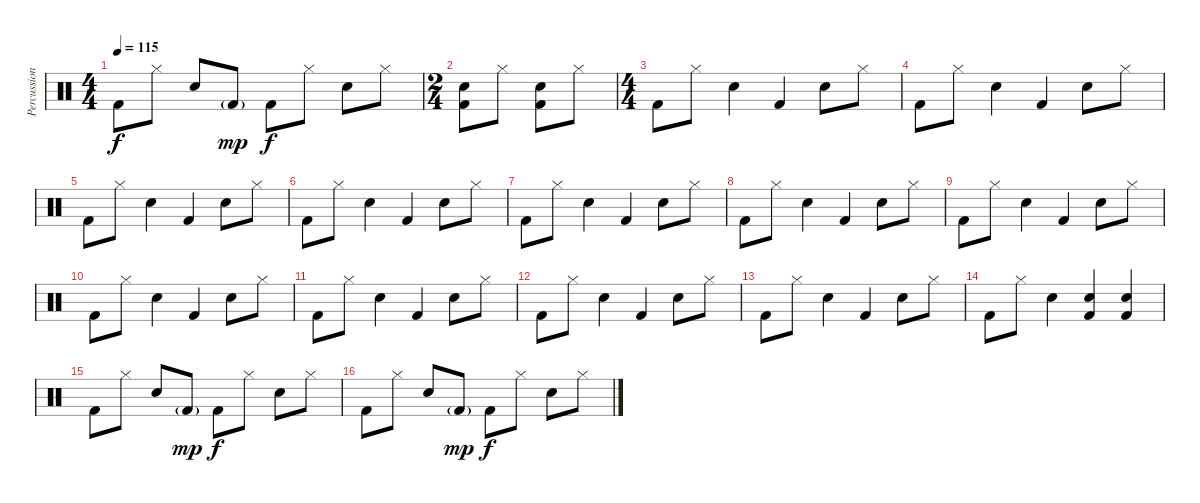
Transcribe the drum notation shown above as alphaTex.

\track ("Percussion" "Percussion") {instrument percussion}
\staff {score}
\articulation defaults
\ts (4 4)
\tempo 115
\clef neutral
\ks c "Kick (hit) 2".8{dy f} "Hi-Hat (closed)".8 "Snare (hit) 2".8 "Kick (hit) 2"{g}.8{dy mp} "Kick (hit) 2".8{dy f} "Hi-Hat (closed)".8 "Snare (hit) 2".8 "Hi-Hat (closed)".8
|
\ts (2 4)
("Snare (hit) 2" "Kick (hit) 2").8 "Hi-Hat (closed)".8 ("Snare (hit) 2" "Kick (hit) 2").8 "Hi-Hat (closed)".8 |
\ts (4 4)
"Kick (hit) 2".8 "Hi-Hat (closed)".8 "Snare (hit) 2".4 "Kick (hit) 2".4 "Snare (hit) 2".8 "Hi-Hat (closed)".8 |
"Kick (hit) 2".8 "Hi-Hat (closed)".8 "Snare (hit) 2".4 "Kick (hit) 2".4 "Snare (hit) 2".8 "Hi-Hat (closed)".8 |
"Kick (hit) 2".8 "Hi-Hat (closed)".8 "Snare (hit) 2".4 "Kick (hit) 2".4 "Snare (hit) 2".8 "Hi-Hat (closed)".8 |
"Kick (hit) 2".8 "Hi-Hat (closed)".8 "Snare (hit) 2".4 "Kick (hit) 2".4 "Snare (hit) 2".8 "Hi-Hat (closed)".8 |
"Kick (hit) 2".8 "Hi-Hat (closed)".8 "Snare (hit) 2".4 "Kick (hit) 2".4 "Snare (hit) 2".8 "Hi-Hat (closed)".8 |
"Kick (hit) 2".8 "Hi-Hat (closed)".8 "Snare (hit) 2".4 "Kick (hit) 2".4 "Snare (hit) 2".8 "Hi-Hat (closed)".8 |
"Kick (hit) 2".8 "Hi-Hat (closed)".8 "Snare (hit) 2".4 "Kick (hit) 2".4 "Snare (hit) 2".8 "Hi-Hat (closed)".8 |
"Kick (hit) 2".8 "Hi-Hat (closed)".8 "Snare (hit) 2".4 "Kick (hit) 2".4 "Snare (hit) 2".8 "Hi-Hat (closed)".8 |
"Kick (hit) 2".8 "Hi-Hat (closed)".8 "Snare (hit) 2".4 "Kick (hit) 2".4 "Snare (hit) 2".8 "Hi-Hat (closed)".8 |
"Kick (hit) 2".8 "Hi-Hat (closed)".8 "Snare (hit) 2".4 "Kick (hit) 2".4 "Snare (hit) 2".8 "Hi-Hat (closed)".8 |
"Kick (hit) 2".8 "Hi-Hat (closed)".8 "Snare (hit) 2".4 "Kick (hit) 2".4 "Snare (hit) 2".8 "Hi-Hat (closed)".8 |
"Kick (hit) 2".8 "Hi-Hat (closed)".8 "Snare (hit) 2".4 ("Snare (hit) 2" "Kick (hit) 2").4 ("Snare (hit) 2" "Kick (hit) 2").4 |
"Kick (hit) 2".8 "Hi-Hat (closed)".8 "Snare (hit) 2".8 "Kick (hit) 2"{g}.8{dy mp} "Kick (hit) 2".8{dy f} "Hi-Hat (closed)".8 "Snare (hit) 2".8 "Hi-Hat (closed)".8 |
"Kick (hit) 2".8 "Hi-Hat (closed)".8 "Snare (hit) 2".8 "Kick (hit) 2"{g}.8{dy mp} "Kick (hit) 2".8{dy f} "Hi-Hat (closed)".8 "Snare (hit) 2".8 "Hi-Hat (closed)".8
